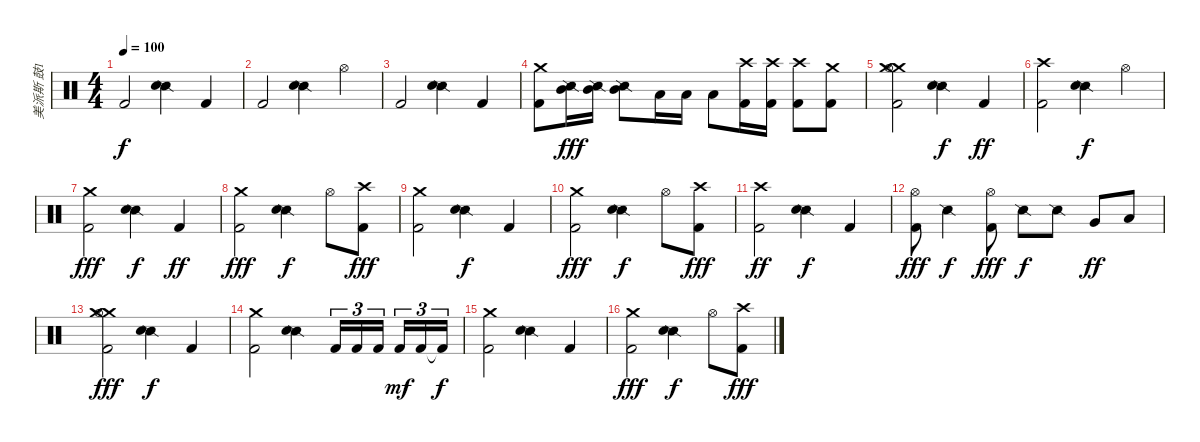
\track ("美派斯 鼓1" "美派斯 鼓1") {instrument percussion}
\staff {score}
\articulation defaults
\ts (4 4)
\tempo 100
\clef neutral
\ks c "Kick (hit) 2".2{dy f}
("Snare (side stick) 2" "Snare (hit) 2").4 "Kick (hit) 2".4 |
"Kick (hit) 2".2 ("Snare (side stick) 2" "Snare (hit) 2").4 "Hi-Hat (open)".4 |
"Kick (hit) 2".2 ("Snare (side stick) 2" "Snare (hit) 2").4 "Kick (hit) 2".4 |
("Crash medium (hit)" "Kick (hit) 2").8 ("Mid Tom (hit)" "Snare (side stick) 2").16{dy fff} ("Mid Tom (hit)" "Snare (side stick) 2").16 ("Mid Tom (hit)" "Snare (side stick) 2").8 "Low Tom (hit)".16 "Low Tom (hit)".16 "Low Tom (hit)".8 ("Crash high (hit)" "Kick (hit) 2").16 ("Crash high (hit)" "Kick (hit) 2").16 ("Crash high (hit)" "Kick (hit) 2").8 ("Crash medium (hit)" "Kick (hit) 2").8 |
("Crash medium (hit)" "Crash medium (hit)" "Kick (hit) 2" "Hi-Hat (open)").2 ("Snare (side stick) 2" "Snare (hit) 2").4{dy f} "Kick (hit) 2".4{dy ff} |
("Crash high (hit)" "Kick (hit) 2").2 ("Snare (side stick) 2" "Snare (hit) 2").4{dy f} "Hi-Hat (open)".4 |
("Crash medium (hit)" "Kick (hit) 2").2{dy fff} ("Snare (side stick) 2" "Snare (hit) 2").4{dy f} "Kick (hit) 2".4{dy ff} |
("Crash medium (hit)" "Kick (hit) 2").2{dy fff} ("Snare (side stick) 2" "Snare (hit) 2").4{dy f} "Hi-Hat (open)".8 ("Crash high (hit)" "Kick (hit) 2").8{dy fff} |
("Crash medium (hit)" "Kick (hit) 2").2 ("Snare (side stick) 2" "Snare (hit) 2").4{dy f} "Kick (hit) 2".4 |
("Crash medium (hit)" "Kick (hit) 2").2{dy fff} ("Snare (side stick) 2" "Snare (hit) 2").4{dy f} "Hi-Hat (open)".8 ("Crash high (hit)" "Kick (hit) 2").8{dy fff} |
("Crash high (hit)" "Kick (hit) 2").2{dy ff} ("Snare (side stick) 2" "Snare (hit) 2").4{dy f} "Kick (hit) 2".4 |
("Hi-Hat (open)" "Kick (hit) 2").8{dy fff} "Snare (side stick) 2".4{dy f} ("Hi-Hat (open)" "Kick (hit) 2").8{dy fff} "Snare (side stick) 2".8{dy f} "Snare (side stick) 2".8 "Very Low Tom (hit)".8{dy ff} "Low Floor Tom (hit)".8 |
("Crash medium (hit)" "Crash medium (hit)" "Kick (hit) 2" "Hi-Hat (open)").2{dy fff} ("Snare (side stick) 2" "Snare (hit) 2").4{dy f} "Kick (hit) 2".4 |
("Crash medium (hit)" "Kick (hit) 2").2 ("Snare (side stick) 2" "Snare (hit) 2").4 "Kick (hit) 2".16{tu (3 2)} "Kick (hit) 2".16{tu (3 2)} "Kick (hit) 2".16{tu (3 2)} "Kick (hit) 2".16{tu (3 2) dy mf} "Kick (hit) 2".16{tu (3 2)} "Kick (hit) 2"{t}.16{tu (3 2) dy f} |
("Crash medium (hit)" "Kick (hit) 2").2 ("Snare (side stick) 2" "Snare (hit) 2").4 "Kick (hit) 2".4 |
("Crash medium (hit)" "Kick (hit) 2").2{dy fff} ("Snare (side stick) 2" "Snare (hit) 2").4{dy f} "Hi-Hat (open)".8 ("Crash high (hit)" "Kick (hit) 2").8{dy fff}
